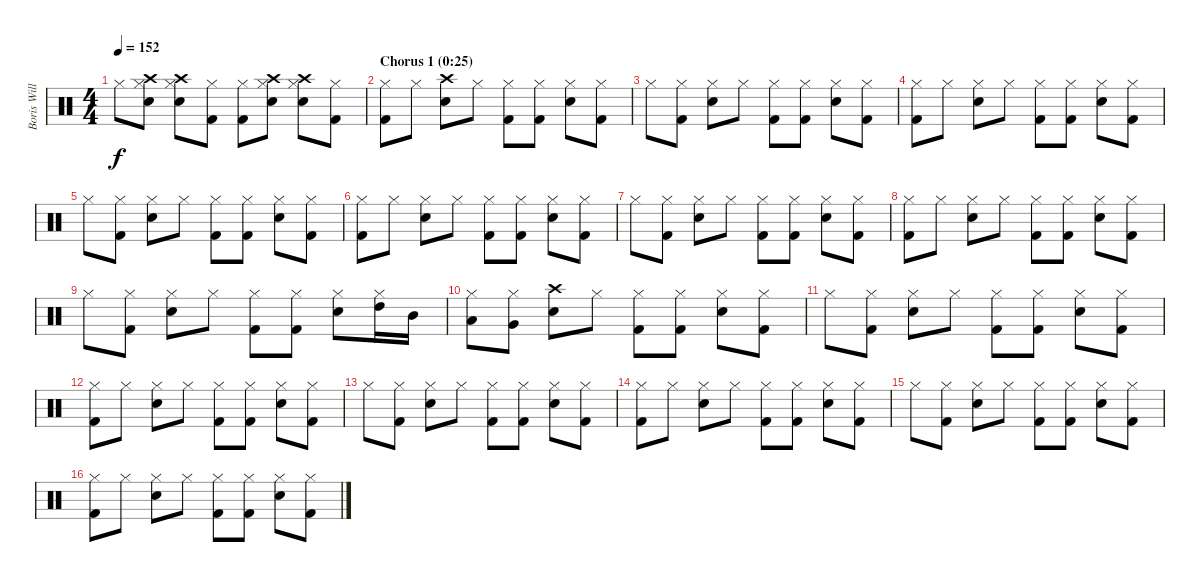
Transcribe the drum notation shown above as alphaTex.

\track ("Boris Williams (drums)" "Boris Will") {instrument percussion}
\staff {score}
\articulation defaults
\ts (4 4)
\tempo 152
\clef neutral
\ks c "Hi-Hat (closed)".8{dy f}
("Crash high (hit)" "Snare (hit) 2" "Hi-Hat (closed)").8 ("Crash high (hit)" "Snare (hit) 2" "Hi-Hat (closed)").8 ("Kick (hit) 2" "Hi-Hat (closed)").8 ("Kick (hit) 2" "Hi-Hat (closed)").8 ("Crash high (hit)" "Snare (hit) 2" "Hi-Hat (closed)").8 ("Crash high (hit)" "Snare (hit) 2" "Hi-Hat (closed)").8 ("Kick (hit) 2" "Hi-Hat (closed)").8 |
\section ("" "Chorus 1 (0:25)")
("Kick (hit) 2" "Hi-Hat (closed)").8 "Hi-Hat (closed)".8 ("Snare (hit) 2" "Crash high (hit)").8 "Hi-Hat (closed)".8 ("Kick (hit) 2" "Hi-Hat (closed)").8 ("Kick (hit) 2" "Hi-Hat (closed)").8 ("Snare (hit) 2" "Hi-Hat (closed)").8 ("Kick (hit) 2" "Hi-Hat (closed)").8 |
"Hi-Hat (closed)".8 ("Kick (hit) 2" "Hi-Hat (closed)").8 ("Snare (hit) 2" "Hi-Hat (closed)").8 "Hi-Hat (closed)".8 ("Kick (hit) 2" "Hi-Hat (closed)").8 ("Kick (hit) 2" "Hi-Hat (closed)").8 ("Snare (hit) 2" "Hi-Hat (closed)").8 ("Kick (hit) 2" "Hi-Hat (closed)").8 |
("Kick (hit) 2" "Hi-Hat (closed)").8 "Hi-Hat (closed)".8 ("Snare (hit) 2" "Hi-Hat (closed)").8 "Hi-Hat (closed)".8 ("Kick (hit) 2" "Hi-Hat (closed)").8 ("Kick (hit) 2" "Hi-Hat (closed)").8 ("Snare (hit) 2" "Hi-Hat (closed)").8 ("Kick (hit) 2" "Hi-Hat (closed)").8 |
"Hi-Hat (closed)".8 ("Kick (hit) 2" "Hi-Hat (closed)").8 ("Snare (hit) 2" "Hi-Hat (closed)").8 "Hi-Hat (closed)".8 ("Kick (hit) 2" "Hi-Hat (closed)").8 ("Kick (hit) 2" "Hi-Hat (closed)").8 ("Snare (hit) 2" "Hi-Hat (closed)").8 ("Kick (hit) 2" "Hi-Hat (closed)").8 |
("Kick (hit) 2" "Hi-Hat (closed)").8 "Hi-Hat (closed)".8 ("Snare (hit) 2" "Hi-Hat (closed)").8 "Hi-Hat (closed)".8 ("Kick (hit) 2" "Hi-Hat (closed)").8 ("Kick (hit) 2" "Hi-Hat (closed)").8 ("Snare (hit) 2" "Hi-Hat (closed)").8 ("Kick (hit) 2" "Hi-Hat (closed)").8 |
"Hi-Hat (closed)".8 ("Kick (hit) 2" "Hi-Hat (closed)").8 ("Snare (hit) 2" "Hi-Hat (closed)").8 "Hi-Hat (closed)".8 ("Kick (hit) 2" "Hi-Hat (closed)").8 ("Kick (hit) 2" "Hi-Hat (closed)").8 ("Snare (hit) 2" "Hi-Hat (closed)").8 ("Kick (hit) 2" "Hi-Hat (closed)").8 |
("Kick (hit) 2" "Hi-Hat (closed)").8 "Hi-Hat (closed)".8 ("Snare (hit) 2" "Hi-Hat (closed)").8 "Hi-Hat (closed)".8 ("Kick (hit) 2" "Hi-Hat (closed)").8 ("Kick (hit) 2" "Hi-Hat (closed)").8 ("Snare (hit) 2" "Hi-Hat (closed)").8 ("Kick (hit) 2" "Hi-Hat (closed)").8 |
"Hi-Hat (closed)".8 ("Kick (hit) 2" "Hi-Hat (closed)").8 ("Snare (hit) 2" "Hi-Hat (closed)").8 "Hi-Hat (closed)".8 ("Kick (hit) 2" "Hi-Hat (closed)").8 ("Kick (hit) 2" "Hi-Hat (closed)").8 ("Snare (hit) 2" "Hi-Hat (closed)").8 ("High Tom (hit)" "Hi-Hat (closed)").16 "Mid Tom (hit)".16 |
("Low Tom (hit)" "Hi-Hat (closed)").8 ("Very Low Tom (hit)" "Hi-Hat (closed)").8 ("Snare (hit) 2" "Crash high (hit)").8 "Hi-Hat (closed)".8 ("Kick (hit) 2" "Hi-Hat (closed)").8 ("Kick (hit) 2" "Hi-Hat (closed)").8 ("Snare (hit) 2" "Hi-Hat (closed)").8 ("Kick (hit) 2" "Hi-Hat (closed)").8 |
"Hi-Hat (closed)".8 ("Kick (hit) 2" "Hi-Hat (closed)").8 ("Snare (hit) 2" "Hi-Hat (closed)").8 "Hi-Hat (closed)".8 ("Kick (hit) 2" "Hi-Hat (closed)").8 ("Kick (hit) 2" "Hi-Hat (closed)").8 ("Snare (hit) 2" "Hi-Hat (closed)").8 ("Kick (hit) 2" "Hi-Hat (closed)").8 |
("Kick (hit) 2" "Hi-Hat (closed)").8 "Hi-Hat (closed)".8 ("Snare (hit) 2" "Hi-Hat (closed)").8 "Hi-Hat (closed)".8 ("Kick (hit) 2" "Hi-Hat (closed)").8 ("Kick (hit) 2" "Hi-Hat (closed)").8 ("Snare (hit) 2" "Hi-Hat (closed)").8 ("Kick (hit) 2" "Hi-Hat (closed)").8 |
"Hi-Hat (closed)".8 ("Kick (hit) 2" "Hi-Hat (closed)").8 ("Snare (hit) 2" "Hi-Hat (closed)").8 "Hi-Hat (closed)".8 ("Kick (hit) 2" "Hi-Hat (closed)").8 ("Kick (hit) 2" "Hi-Hat (closed)").8 ("Snare (hit) 2" "Hi-Hat (closed)").8 ("Kick (hit) 2" "Hi-Hat (closed)").8 |
("Kick (hit) 2" "Hi-Hat (closed)").8 "Hi-Hat (closed)".8 ("Snare (hit) 2" "Hi-Hat (closed)").8 "Hi-Hat (closed)".8 ("Kick (hit) 2" "Hi-Hat (closed)").8 ("Kick (hit) 2" "Hi-Hat (closed)").8 ("Snare (hit) 2" "Hi-Hat (closed)").8 ("Kick (hit) 2" "Hi-Hat (closed)").8 |
"Hi-Hat (closed)".8 ("Kick (hit) 2" "Hi-Hat (closed)").8 ("Snare (hit) 2" "Hi-Hat (closed)").8 "Hi-Hat (closed)".8 ("Kick (hit) 2" "Hi-Hat (closed)").8 ("Kick (hit) 2" "Hi-Hat (closed)").8 ("Snare (hit) 2" "Hi-Hat (closed)").8 ("Kick (hit) 2" "Hi-Hat (closed)").8 |
("Kick (hit) 2" "Hi-Hat (closed)").8 "Hi-Hat (closed)".8 ("Snare (hit) 2" "Hi-Hat (closed)").8 "Hi-Hat (closed)".8 ("Kick (hit) 2" "Hi-Hat (closed)").8 ("Kick (hit) 2" "Hi-Hat (closed)").8 ("Snare (hit) 2" "Hi-Hat (closed)").8 ("Kick (hit) 2" "Hi-Hat (closed)").8
